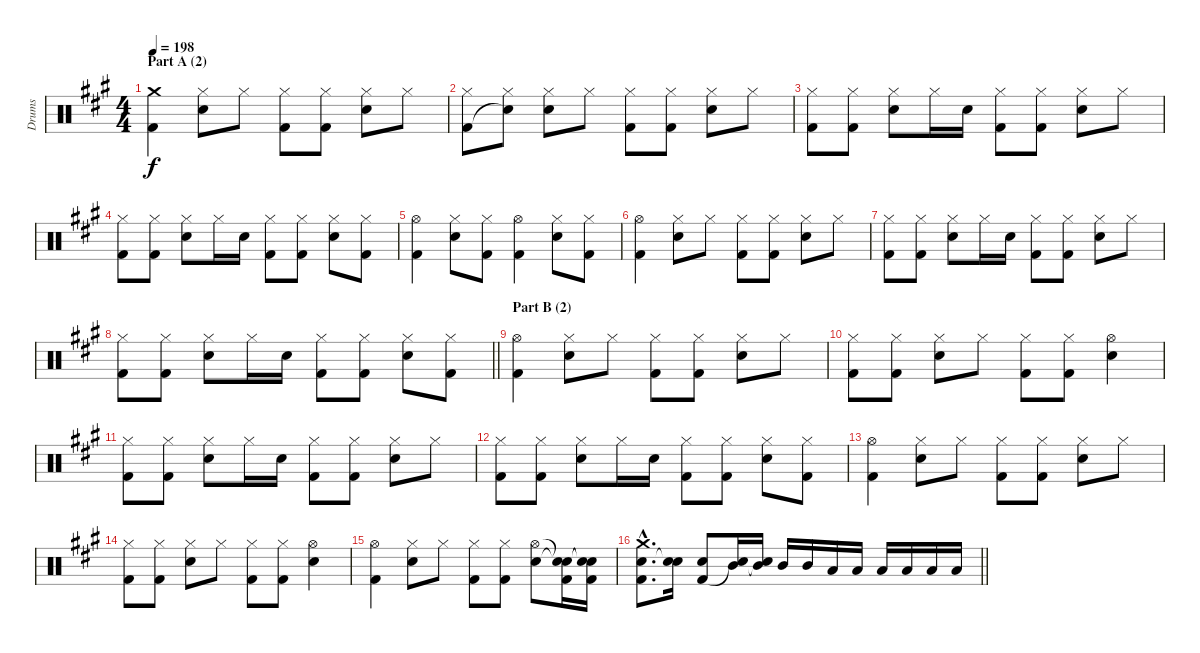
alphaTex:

\track ("Drums" "Drums") {instrument percussion}
\staff {score}
\articulation defaults
\ts (4 4)
\section ("" "Part A (2)")
\tempo 198
\clef neutral
\ks a
("Crash medium (hit)" "Kick (hit) 2").4{dy f} ("Hi-Hat (closed)" "Electric Snare (hit)").8 "Hi-Hat (closed)".8 ("Hi-Hat (closed)" "Kick (hit) 2").8 ("Hi-Hat (closed)" "Kick (hit) 2").8 ("Hi-Hat (closed)" "Electric Snare (hit)").8 "Hi-Hat (closed)".8 |
("Hi-Hat (closed)" "Kick (hit) 2").8 ("Hi-Hat (closed)" "Snare (hit)"{t}).8 ("Hi-Hat (closed)" "Electric Snare (hit)").8 "Hi-Hat (closed)".8 ("Hi-Hat (closed)" "Kick (hit) 2").8 ("Hi-Hat (closed)" "Kick (hit) 2").8 ("Hi-Hat (closed)" "Electric Snare (hit)").8 "Hi-Hat (closed)".8 |
("Hi-Hat (closed)" "Kick (hit) 2").8 ("Hi-Hat (closed)" "Kick (hit) 2").8 ("Hi-Hat (closed)" "Electric Snare (hit)").8 "Hi-Hat (closed)".16 "Electric Snare (hit)".16 ("Hi-Hat (closed)" "Kick (hit) 2").8 ("Hi-Hat (closed)" "Kick (hit) 2").8 ("Hi-Hat (closed)" "Electric Snare (hit)").8 "Hi-Hat (closed)".8 |
("Hi-Hat (closed)" "Kick (hit) 2").8 ("Hi-Hat (closed)" "Kick (hit) 2").8 ("Hi-Hat (closed)" "Electric Snare (hit)").8 "Hi-Hat (closed)".16 "Electric Snare (hit)".16 ("Hi-Hat (closed)" "Kick (hit) 2").8 ("Hi-Hat (closed)" "Kick (hit) 2").8 ("Hi-Hat (closed)" "Electric Snare (hit)").8 ("Hi-Hat (closed)" "Kick (hit) 2").8 |
("Hi-Hat (open)" "Kick (hit) 2").4 ("Hi-Hat (closed)" "Electric Snare (hit)").8 ("Hi-Hat (closed)" "Kick (hit) 2").8 ("Hi-Hat (open)" "Kick (hit) 2").4 ("Hi-Hat (closed)" "Electric Snare (hit)").8 ("Hi-Hat (closed)" "Kick (hit) 2").8 |
("Hi-Hat (open)" "Kick (hit) 2").4 ("Hi-Hat (closed)" "Electric Snare (hit)").8 "Hi-Hat (closed)".8 ("Hi-Hat (closed)" "Kick (hit) 2").8 ("Hi-Hat (closed)" "Kick (hit) 2").8 ("Hi-Hat (closed)" "Electric Snare (hit)").8 "Hi-Hat (closed)".8 |
("Hi-Hat (closed)" "Kick (hit) 2").8 ("Hi-Hat (closed)" "Kick (hit) 2").8 ("Hi-Hat (closed)" "Electric Snare (hit)").8 "Hi-Hat (closed)".16 "Electric Snare (hit)".16 ("Hi-Hat (closed)" "Kick (hit) 2").8 ("Hi-Hat (closed)" "Kick (hit) 2").8 ("Hi-Hat (closed)" "Electric Snare (hit)").8 "Hi-Hat (closed)".8 |
\barLineRight lightlight
("Hi-Hat (closed)" "Kick (hit) 2").8 ("Hi-Hat (closed)" "Kick (hit) 2").8 ("Hi-Hat (closed)" "Electric Snare (hit)").8 "Hi-Hat (closed)".16 "Electric Snare (hit)".16 ("Hi-Hat (closed)" "Kick (hit) 2").8 ("Hi-Hat (closed)" "Kick (hit) 2").8 ("Hi-Hat (closed)" "Electric Snare (hit)").8 ("Hi-Hat (closed)" "Kick (hit) 2").8 |
\section ("" "Part B (2)")
("Hi-Hat (open)" "Kick (hit) 2").4 ("Hi-Hat (closed)" "Electric Snare (hit)").8 "Hi-Hat (closed)".8 ("Hi-Hat (closed)" "Kick (hit) 2").8 ("Hi-Hat (closed)" "Kick (hit) 2").8 ("Hi-Hat (closed)" "Electric Snare (hit)").8 "Hi-Hat (closed)".8 |
("Hi-Hat (closed)" "Kick (hit) 2").8 ("Hi-Hat (closed)" "Kick (hit) 2").8 ("Hi-Hat (closed)" "Electric Snare (hit)").8 "Hi-Hat (closed)".8 ("Hi-Hat (closed)" "Kick (hit) 2").8 ("Hi-Hat (closed)" "Kick (hit) 2").8 ("Hi-Hat (open)" "Electric Snare (hit)").4 |
("Hi-Hat (closed)" "Kick (hit) 2").8 ("Hi-Hat (closed)" "Kick (hit) 2").8 ("Hi-Hat (closed)" "Electric Snare (hit)").8 "Hi-Hat (closed)".16 "Electric Snare (hit)".16 ("Hi-Hat (closed)" "Kick (hit) 2").8 ("Hi-Hat (closed)" "Kick (hit) 2").8 ("Hi-Hat (closed)" "Electric Snare (hit)").8 "Hi-Hat (closed)".8 |
("Hi-Hat (closed)" "Kick (hit) 2").8 ("Hi-Hat (closed)" "Kick (hit) 2").8 ("Hi-Hat (closed)" "Electric Snare (hit)").8 "Hi-Hat (closed)".16 "Electric Snare (hit)".16 ("Hi-Hat (closed)" "Kick (hit) 2").8 ("Hi-Hat (closed)" "Kick (hit) 2").8 ("Hi-Hat (closed)" "Electric Snare (hit)").8 ("Hi-Hat (closed)" "Kick (hit) 2").8 |
("Hi-Hat (open)" "Kick (hit) 2").4 ("Hi-Hat (closed)" "Electric Snare (hit)").8 "Hi-Hat (closed)".8 ("Hi-Hat (closed)" "Kick (hit) 2").8 ("Hi-Hat (closed)" "Kick (hit) 2").8 ("Hi-Hat (closed)" "Electric Snare (hit)").8 "Hi-Hat (closed)".8 |
("Hi-Hat (closed)" "Kick (hit) 2").8 ("Hi-Hat (closed)" "Kick (hit) 2").8 ("Hi-Hat (closed)" "Electric Snare (hit)").8 "Hi-Hat (closed)".8 ("Hi-Hat (closed)" "Kick (hit) 2").8 ("Hi-Hat (closed)" "Kick (hit) 2").8 ("Hi-Hat (open)" "Electric Snare (hit)").4 |
("Hi-Hat (open)" "Kick (hit) 2").4 ("Hi-Hat (closed)" "Electric Snare (hit)").8 "Hi-Hat (closed)".8 ("Hi-Hat (closed)" "Kick (hit) 2").8 ("Hi-Hat (closed)" "Kick (hit) 2").8 ("Hi-Hat (open)" "Electric Snare (hit)").8 ("Snare (hit)"{t} "Snare (hit)"{t} "Kick (hit) 2").16 ("Snare (hit)"{t} "Snare (hit)"{t} "Kick (hit) 2").16 |
\barLineRight lightlight
("Crash medium (hit)"{hac} "Electric Snare (hit)"{hac} "Kick (hit) 2"{hac}).8{d} ("Electric Snare (hit)" "Snare (hit)"{t}).16 ("Electric Snare (hit)" "Kick (hit) 2").8 ("Mid Tom (hit)" "Snare (hit)"{t}).16 ("Mid Tom (hit)" "Snare (hit)"{t}).16 "Mid Tom (hit)".16 "Mid Tom (hit)".16 "Low Tom (hit)".16 "Low Tom (hit)".16 "Low Tom (hit)".16 "Low Tom (hit)".16 "Low Floor Tom (hit)".16 "Low Floor Tom (hit)".16
